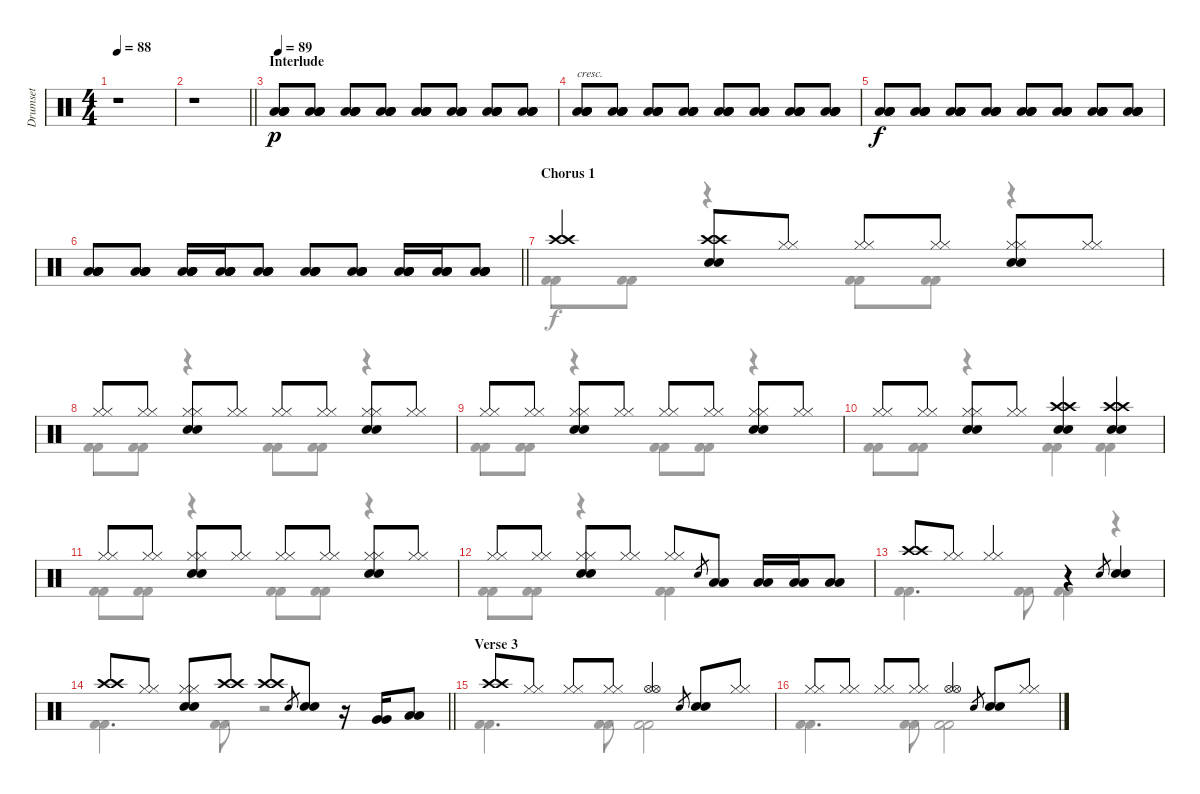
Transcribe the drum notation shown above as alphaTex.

\track ("Drumset" "Drumset") {instrument percussion}
\staff {score}
\articulation defaults
\voice
\ts (4 4)
\tempo 88
\clef neutral
\ks c
r.1{dy p} |
\barLineRight lightlight
r.1 |
\section ("" "Interlude")
\tempo 89
("Low Floor Tom (hit)" "Low Floor Tom (hit)" "Low Tom (hit)" "Low Tom (hit)").8 ("Low Floor Tom (hit)" "Low Floor Tom (hit)" "Low Tom (hit)" "Low Tom (hit)").8 ("Low Floor Tom (hit)" "Low Floor Tom (hit)" "Low Tom (hit)" "Low Tom (hit)").8 ("Low Floor Tom (hit)" "Low Floor Tom (hit)" "Low Tom (hit)" "Low Tom (hit)").8 ("Low Floor Tom (hit)" "Low Floor Tom (hit)" "Low Tom (hit)" "Low Tom (hit)").8 ("Low Floor Tom (hit)" "Low Floor Tom (hit)" "Low Tom (hit)" "Low Tom (hit)").8 ("Low Floor Tom (hit)" "Low Floor Tom (hit)" "Low Tom (hit)" "Low Tom (hit)").8 ("Low Floor Tom (hit)" "Low Floor Tom (hit)" "Low Tom (hit)" "Low Tom (hit)").8 |
("Low Floor Tom (hit)" "Low Floor Tom (hit)" "Low Tom (hit)" "Low Tom (hit)").8{txt "cresc."} ("Low Floor Tom (hit)" "Low Floor Tom (hit)" "Low Tom (hit)" "Low Tom (hit)").8 ("Low Floor Tom (hit)" "Low Floor Tom (hit)" "Low Tom (hit)" "Low Tom (hit)").8 ("Low Floor Tom (hit)" "Low Floor Tom (hit)" "Low Tom (hit)" "Low Tom (hit)").8 ("Low Floor Tom (hit)" "Low Floor Tom (hit)" "Low Tom (hit)" "Low Tom (hit)").8 ("Low Floor Tom (hit)" "Low Floor Tom (hit)" "Low Tom (hit)" "Low Tom (hit)").8 ("Low Floor Tom (hit)" "Low Floor Tom (hit)" "Low Tom (hit)" "Low Tom (hit)").8 ("Low Floor Tom (hit)" "Low Floor Tom (hit)" "Low Tom (hit)" "Low Tom (hit)").8 |
("Low Floor Tom (hit)" "Low Floor Tom (hit)" "Low Tom (hit)" "Low Tom (hit)").8{dy f} ("Low Floor Tom (hit)" "Low Floor Tom (hit)" "Low Tom (hit)" "Low Tom (hit)").8 ("Low Floor Tom (hit)" "Low Floor Tom (hit)" "Low Tom (hit)" "Low Tom (hit)").8 ("Low Floor Tom (hit)" "Low Floor Tom (hit)" "Low Tom (hit)" "Low Tom (hit)").8 ("Low Floor Tom (hit)" "Low Floor Tom (hit)" "Low Tom (hit)" "Low Tom (hit)").8 ("Low Floor Tom (hit)" "Low Floor Tom (hit)" "Low Tom (hit)" "Low Tom (hit)").8 ("Low Floor Tom (hit)" "Low Floor Tom (hit)" "Low Tom (hit)" "Low Tom (hit)").8 ("Low Floor Tom (hit)" "Low Floor Tom (hit)" "Low Tom (hit)" "Low Tom (hit)").8 |
\barLineRight lightlight
("Low Floor Tom (hit)" "Low Floor Tom (hit)" "Low Tom (hit)" "Low Tom (hit)").8 ("Low Floor Tom (hit)" "Low Floor Tom (hit)" "Low Tom (hit)" "Low Tom (hit)").8 ("Low Floor Tom (hit)" "Low Floor Tom (hit)" "Low Tom (hit)" "Low Tom (hit)").16 ("Low Floor Tom (hit)" "Low Floor Tom (hit)" "Low Tom (hit)" "Low Tom (hit)").16 ("Low Floor Tom (hit)" "Low Floor Tom (hit)" "Low Tom (hit)" "Low Tom (hit)").8 ("Low Floor Tom (hit)" "Low Floor Tom (hit)" "Low Tom (hit)" "Low Tom (hit)").8 ("Low Floor Tom (hit)" "Low Floor Tom (hit)" "Low Tom (hit)" "Low Tom (hit)").8 ("Low Floor Tom (hit)" "Low Floor Tom (hit)" "Low Tom (hit)" "Low Tom (hit)").16 ("Low Floor Tom (hit)" "Low Floor Tom (hit)" "Low Tom (hit)" "Low Tom (hit)").16 ("Low Floor Tom (hit)" "Low Floor Tom (hit)" "Low Tom (hit)" "Low Tom (hit)").8 |
\section ("" "Chorus 1")
("Crash high (hit)" "Crash high (hit)").4 ("Electric Snare (hit)" "Electric Snare (hit)" "Crash high (hit)" "Crash high (hit)").8 ("Hi-Hat (closed)" "Hi-Hat (closed)").8 ("Hi-Hat (closed)" "Hi-Hat (closed)").8 ("Hi-Hat (closed)" "Hi-Hat (closed)").8 ("Electric Snare (hit)" "Electric Snare (hit)" "Hi-Hat (closed)" "Hi-Hat (closed)").8 ("Hi-Hat (closed)" "Hi-Hat (closed)").8 |
("Hi-Hat (closed)" "Hi-Hat (closed)").8 ("Hi-Hat (closed)" "Hi-Hat (closed)").8 ("Electric Snare (hit)" "Electric Snare (hit)" "Hi-Hat (closed)" "Hi-Hat (closed)").8 ("Hi-Hat (closed)" "Hi-Hat (closed)").8 ("Hi-Hat (closed)" "Hi-Hat (closed)").8 ("Hi-Hat (closed)" "Hi-Hat (closed)").8 ("Electric Snare (hit)" "Electric Snare (hit)" "Hi-Hat (closed)" "Hi-Hat (closed)").8 ("Hi-Hat (closed)" "Hi-Hat (closed)").8 |
("Hi-Hat (closed)" "Hi-Hat (closed)").8 ("Hi-Hat (closed)" "Hi-Hat (closed)").8 ("Electric Snare (hit)" "Electric Snare (hit)" "Hi-Hat (closed)" "Hi-Hat (closed)").8 ("Hi-Hat (closed)" "Hi-Hat (closed)").8 ("Hi-Hat (closed)" "Hi-Hat (closed)").8 ("Hi-Hat (closed)" "Hi-Hat (closed)").8 ("Electric Snare (hit)" "Electric Snare (hit)" "Hi-Hat (closed)" "Hi-Hat (closed)").8 ("Hi-Hat (closed)" "Hi-Hat (closed)").8 |
("Hi-Hat (closed)" "Hi-Hat (closed)").8 ("Hi-Hat (closed)" "Hi-Hat (closed)").8 ("Electric Snare (hit)" "Electric Snare (hit)" "Hi-Hat (closed)" "Hi-Hat (closed)").8 ("Hi-Hat (closed)" "Hi-Hat (closed)").8 ("Electric Snare (hit)" "Electric Snare (hit)" "Crash high (hit)" "Crash high (hit)").4 ("Electric Snare (hit)" "Electric Snare (hit)" "Crash high (hit)" "Crash high (hit)").4 |
("Hi-Hat (closed)" "Hi-Hat (closed)").8 ("Hi-Hat (closed)" "Hi-Hat (closed)").8 ("Electric Snare (hit)" "Electric Snare (hit)" "Hi-Hat (closed)" "Hi-Hat (closed)").8 ("Hi-Hat (closed)" "Hi-Hat (closed)").8 ("Hi-Hat (closed)" "Hi-Hat (closed)").8 ("Hi-Hat (closed)" "Hi-Hat (closed)").8 ("Electric Snare (hit)" "Electric Snare (hit)" "Hi-Hat (closed)" "Hi-Hat (closed)").8 ("Hi-Hat (closed)" "Hi-Hat (closed)").8 |
("Hi-Hat (closed)" "Hi-Hat (closed)").8 ("Hi-Hat (closed)" "Hi-Hat (closed)").8 ("Electric Snare (hit)" "Electric Snare (hit)" "Hi-Hat (closed)" "Hi-Hat (closed)").8 ("Hi-Hat (closed)" "Hi-Hat (closed)").8 ("Hi-Hat (closed)" "Hi-Hat (closed)").8 "Snare (hit)".8{gr} ("Low Tom (hit)" "Low Tom (hit)").8 ("Low Tom (hit)" "Low Tom (hit)").16 ("Low Floor Tom (hit)" "Low Floor Tom (hit)").16 ("Low Floor Tom (hit)" "Low Floor Tom (hit)").8 |
("Crash high (hit)" "Crash high (hit)").8 ("Hi-Hat (closed)" "Hi-Hat (closed)").8 ("Hi-Hat (closed)" "Hi-Hat (closed)").4 r.4 "Snare (hit)".8{gr} ("Electric Snare (hit)" "Electric Snare (hit)").4 |
\barLineRight lightlight
("Crash high (hit)" "Crash high (hit)").8 ("Hi-Hat (closed)" "Hi-Hat (closed)").8 ("Electric Snare (hit)" "Electric Snare (hit)" "Hi-Hat (closed)" "Hi-Hat (closed)").8 ("Crash high (hit)" "Crash high (hit)").8 ("Crash high (hit)" "Crash high (hit)").8 "Snare (hit)".8{gr} ("Electric Snare (hit)" "Electric Snare (hit)").8 r.16 ("Very Low Tom (hit)" "Very Low Tom (hit)").16 ("Low Floor Tom (hit)" "Low Floor Tom (hit)").8 |
\section ("" "Verse 3")
("Crash high (hit)" "Crash high (hit)").8 ("Hi-Hat (closed)" "Hi-Hat (closed)").8 ("Hi-Hat (closed)" "Hi-Hat (closed)").8 ("Hi-Hat (closed)" "Hi-Hat (closed)").8 ("Hi-Hat (open)" "Hi-Hat (open)").4 "Snare (hit)".8{gr} ("Electric Snare (hit)" "Electric Snare (hit)").8 ("Hi-Hat (closed)" "Hi-Hat (closed)").8 |
("Hi-Hat (closed)" "Hi-Hat (closed)").8 ("Hi-Hat (closed)" "Hi-Hat (closed)").8 ("Hi-Hat (closed)" "Hi-Hat (closed)").8 ("Hi-Hat (closed)" "Hi-Hat (closed)").8 ("Hi-Hat (open)" "Hi-Hat (open)").4 "Snare (hit)".8{gr} ("Electric Snare (hit)" "Electric Snare (hit)").8 ("Hi-Hat (closed)" "Hi-Hat (closed)").8
\voice
\clef neutral
\ottava regular
\simile none
\ks c
|
\barLineRight lightlight
|
|
|
|
\barLineRight lightlight
|
("Kick (hit) 2" "Kick (hit) 2").8 ("Kick (hit) 2" "Kick (hit) 2").8 r.4 ("Kick (hit) 2" "Kick (hit) 2").8 ("Kick (hit) 2" "Kick (hit) 2").8 r.4 |
("Kick (hit) 2" "Kick (hit) 2").8 ("Kick (hit) 2" "Kick (hit) 2").8 r.4 ("Kick (hit) 2" "Kick (hit) 2").8 ("Kick (hit) 2" "Kick (hit) 2").8 r.4 |
("Kick (hit) 2" "Kick (hit) 2").8 ("Kick (hit) 2" "Kick (hit) 2").8 r.4 ("Kick (hit) 2" "Kick (hit) 2").8 ("Kick (hit) 2" "Kick (hit) 2").8 r.4 |
("Kick (hit) 2" "Kick (hit) 2").8 ("Kick (hit) 2" "Kick (hit) 2").8 r.4 ("Kick (hit) 2" "Kick (hit) 2").4 ("Kick (hit) 2" "Kick (hit) 2").4 |
("Kick (hit) 2" "Kick (hit) 2").8 ("Kick (hit) 2" "Kick (hit) 2").8 r.4 ("Kick (hit) 2" "Kick (hit) 2").8 ("Kick (hit) 2" "Kick (hit) 2").8 r.4 |
("Kick (hit) 2" "Kick (hit) 2").8 ("Kick (hit) 2" "Kick (hit) 2").8 r.4 ("Kick (hit) 2" "Kick (hit) 2").4 |
("Kick (hit) 2" "Kick (hit) 2").4{d} ("Kick (hit) 2" "Kick (hit) 2").8 ("Kick (hit) 2" "Kick (hit) 2").4 r.4 |
\barLineRight lightlight
("Kick (hit) 2" "Kick (hit) 2").4{d} ("Kick (hit) 2" "Kick (hit) 2").8 r.2 |
("Kick (hit) 2" "Kick (hit) 2").4{d} ("Kick (hit) 2" "Kick (hit) 2").8 ("Kick (hit) 2" "Kick (hit) 2").2 |
("Kick (hit) 2" "Kick (hit) 2").4{d} ("Kick (hit) 2" "Kick (hit) 2").8 ("Kick (hit) 2" "Kick (hit) 2").2
